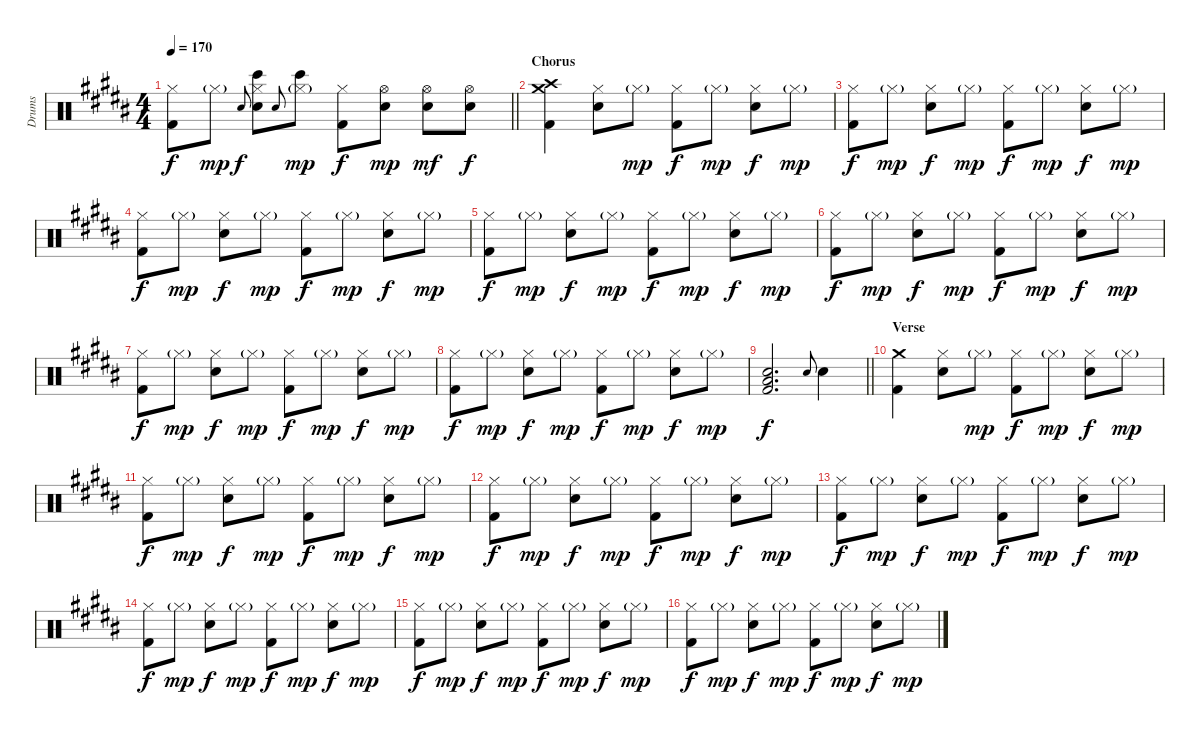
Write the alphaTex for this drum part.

\track ("Drums" "Drums") {instrument percussion}
\staff {score}
\articulation defaults
\ts (4 4)
\tempo 170
\clef neutral
\barLineRight lightlight
\ks b
("Hi-Hat (closed)" "Kick (hit) 2").8{dy f} "Hi-Hat (closed)"{g}.8{dy mp} "Snare (hit)".8{gr onbeat dy f} ("Hi-Hat (closed)" "Bongo High (hit)" "Electric Snare (hit)").8 "Snare (hit)".8{gr onbeat} ("Hi-Hat (closed)"{g} "Bongo High (hit)").8{dy mp} ("Hi-Hat (closed)" "Kick (hit) 2").8{dy f} ("Hi-Hat (open)" "Electric Snare (hit)").8{dy mp} ("Hi-Hat (open)" "Electric Snare (hit)").8{dy mf} ("Hi-Hat (open)" "Electric Snare (hit)").8{dy f} |
\section ("" "Chorus")
("Crash medium (hit)" "Crash high (hit)" "Kick (hit) 2").4 ("Hi-Hat (closed)" "Electric Snare (hit)").8 "Hi-Hat (closed)"{g}.8{dy mp} ("Hi-Hat (closed)" "Kick (hit) 2").8{dy f} "Hi-Hat (closed)"{g}.8{dy mp} ("Hi-Hat (closed)" "Electric Snare (hit)").8{dy f} "Hi-Hat (closed)"{g}.8{dy mp} |
("Hi-Hat (closed)" "Kick (hit) 2").8{dy f} "Hi-Hat (closed)"{g}.8{dy mp} ("Hi-Hat (closed)" "Electric Snare (hit)").8{dy f} "Hi-Hat (closed)"{g}.8{dy mp} ("Hi-Hat (closed)" "Kick (hit) 2").8{dy f} "Hi-Hat (closed)"{g}.8{dy mp} ("Hi-Hat (closed)" "Electric Snare (hit)").8{dy f} "Hi-Hat (closed)"{g}.8{dy mp} |
("Hi-Hat (closed)" "Kick (hit) 2").8{dy f} "Hi-Hat (closed)"{g}.8{dy mp} ("Hi-Hat (closed)" "Electric Snare (hit)").8{dy f} "Hi-Hat (closed)"{g}.8{dy mp} ("Hi-Hat (closed)" "Kick (hit) 2").8{dy f} "Hi-Hat (closed)"{g}.8{dy mp} ("Hi-Hat (closed)" "Electric Snare (hit)").8{dy f} "Hi-Hat (closed)"{g}.8{dy mp} |
("Hi-Hat (closed)" "Kick (hit) 2").8{dy f} "Hi-Hat (closed)"{g}.8{dy mp} ("Hi-Hat (closed)" "Electric Snare (hit)").8{dy f} "Hi-Hat (closed)"{g}.8{dy mp} ("Hi-Hat (closed)" "Kick (hit) 2").8{dy f} "Hi-Hat (closed)"{g}.8{dy mp} ("Hi-Hat (closed)" "Electric Snare (hit)").8{dy f} "Hi-Hat (closed)"{g}.8{dy mp} |
("Hi-Hat (closed)" "Kick (hit) 2").8{dy f} "Hi-Hat (closed)"{g}.8{dy mp} ("Hi-Hat (closed)" "Electric Snare (hit)").8{dy f} "Hi-Hat (closed)"{g}.8{dy mp} ("Hi-Hat (closed)" "Kick (hit) 2").8{dy f} "Hi-Hat (closed)"{g}.8{dy mp} ("Hi-Hat (closed)" "Electric Snare (hit)").8{dy f} "Hi-Hat (closed)"{g}.8{dy mp} |
("Hi-Hat (closed)" "Kick (hit) 2").8{dy f} "Hi-Hat (closed)"{g}.8{dy mp} ("Hi-Hat (closed)" "Electric Snare (hit)").8{dy f} "Hi-Hat (closed)"{g}.8{dy mp} ("Hi-Hat (closed)" "Kick (hit) 2").8{dy f} "Hi-Hat (closed)"{g}.8{dy mp} ("Hi-Hat (closed)" "Electric Snare (hit)").8{dy f} "Hi-Hat (closed)"{g}.8{dy mp} |
("Hi-Hat (closed)" "Kick (hit) 2").8{dy f} "Hi-Hat (closed)"{g}.8{dy mp} ("Hi-Hat (closed)" "Electric Snare (hit)").8{dy f} "Hi-Hat (closed)"{g}.8{dy mp} ("Hi-Hat (closed)" "Kick (hit) 2").8{dy f} "Hi-Hat (closed)"{g}.8{dy mp} ("Hi-Hat (closed)" "Electric Snare (hit)").8{dy f} "Hi-Hat (closed)"{g}.8{dy mp} |
\barLineRight lightlight
("Low Floor Tom (hit)" "Electric Snare (hit)" "Kick (hit) 2").2{d dy f} "Electric Snare (hit)".8{gr onbeat} "Electric Snare (hit)".4 |
\section ("" "Verse")
("Crash medium (hit)" "Kick (hit) 2").4 ("Hi-Hat (closed)" "Electric Snare (hit)").8 "Hi-Hat (closed)"{g}.8{dy mp} ("Hi-Hat (closed)" "Kick (hit) 2").8{dy f} "Hi-Hat (closed)"{g}.8{dy mp} ("Hi-Hat (closed)" "Electric Snare (hit)").8{dy f} "Hi-Hat (closed)"{g}.8{dy mp} |
("Hi-Hat (closed)" "Kick (hit) 2").8{dy f} "Hi-Hat (closed)"{g}.8{dy mp} ("Hi-Hat (closed)" "Electric Snare (hit)").8{dy f} "Hi-Hat (closed)"{g}.8{dy mp} ("Hi-Hat (closed)" "Kick (hit) 2").8{dy f} "Hi-Hat (closed)"{g}.8{dy mp} ("Hi-Hat (closed)" "Electric Snare (hit)").8{dy f} "Hi-Hat (closed)"{g}.8{dy mp} |
("Hi-Hat (closed)" "Kick (hit) 2").8{dy f} "Hi-Hat (closed)"{g}.8{dy mp} ("Hi-Hat (closed)" "Electric Snare (hit)").8{dy f} "Hi-Hat (closed)"{g}.8{dy mp} ("Hi-Hat (closed)" "Kick (hit) 2").8{dy f} "Hi-Hat (closed)"{g}.8{dy mp} ("Hi-Hat (closed)" "Electric Snare (hit)").8{dy f} "Hi-Hat (closed)"{g}.8{dy mp} |
("Hi-Hat (closed)" "Kick (hit) 2").8{dy f} "Hi-Hat (closed)"{g}.8{dy mp} ("Hi-Hat (closed)" "Electric Snare (hit)").8{dy f} "Hi-Hat (closed)"{g}.8{dy mp} ("Hi-Hat (closed)" "Kick (hit) 2").8{dy f} "Hi-Hat (closed)"{g}.8{dy mp} ("Hi-Hat (closed)" "Electric Snare (hit)").8{dy f} "Hi-Hat (closed)"{g}.8{dy mp} |
("Hi-Hat (closed)" "Kick (hit) 2").8{dy f} "Hi-Hat (closed)"{g}.8{dy mp} ("Hi-Hat (closed)" "Electric Snare (hit)").8{dy f} "Hi-Hat (closed)"{g}.8{dy mp} ("Hi-Hat (closed)" "Kick (hit) 2").8{dy f} "Hi-Hat (closed)"{g}.8{dy mp} ("Hi-Hat (closed)" "Electric Snare (hit)").8{dy f} "Hi-Hat (closed)"{g}.8{dy mp} |
("Hi-Hat (closed)" "Kick (hit) 2").8{dy f} "Hi-Hat (closed)"{g}.8{dy mp} ("Hi-Hat (closed)" "Electric Snare (hit)").8{dy f} "Hi-Hat (closed)"{g}.8{dy mp} ("Hi-Hat (closed)" "Kick (hit) 2").8{dy f} "Hi-Hat (closed)"{g}.8{dy mp} ("Hi-Hat (closed)" "Electric Snare (hit)").8{dy f} "Hi-Hat (closed)"{g}.8{dy mp} |
("Hi-Hat (closed)" "Kick (hit) 2").8{dy f} "Hi-Hat (closed)"{g}.8{dy mp} ("Hi-Hat (closed)" "Electric Snare (hit)").8{dy f} "Hi-Hat (closed)"{g}.8{dy mp} ("Hi-Hat (closed)" "Kick (hit) 2").8{dy f} "Hi-Hat (closed)"{g}.8{dy mp} ("Hi-Hat (closed)" "Electric Snare (hit)").8{dy f} "Hi-Hat (closed)"{g}.8{dy mp}
